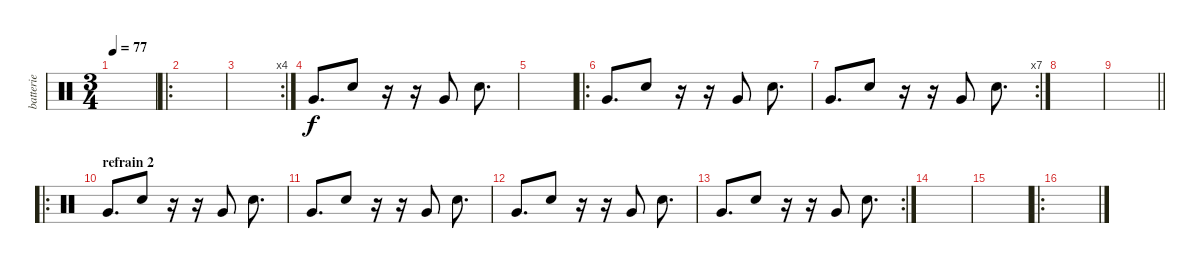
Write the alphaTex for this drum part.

\track ("batterie" "batterie") {instrument percussion}
\staff {score}
\articulation defaults
\ts (3 4)
\tempo 77
\clef neutral
\ks c
|
\ro
|
\rc 4
|
"Very Low Tom (hit)".8{d} "Snare (hit) 2".8 r.16 r.16 "Very Low Tom (hit)".8 "Snare (hit) 2".8{d} |
|
\ro "Very Low Tom (hit)".8{d} "Snare (hit) 2".8
r.16 r.16 "Very Low Tom (hit)".8 "Snare (hit) 2".8{d} |
\rc 7 "Very Low Tom (hit)".8{d} "Snare (hit) 2".8
r.16 r.16 "Very Low Tom (hit)".8 "Snare (hit) 2".8{d} |
|
\barLineRight lightlight
|
\ro
\section ("" "refrain 2")
"Very Low Tom (hit)".8{d} "Snare (hit) 2".8 r.16 r.16 "Very Low Tom (hit)".8 "Snare (hit) 2".8{d} |
"Very Low Tom (hit)".8{d} "Snare (hit) 2".8 r.16 r.16 "Very Low Tom (hit)".8 "Snare (hit) 2".8{d} |
"Very Low Tom (hit)".8{d} "Snare (hit) 2".8 r.16 r.16 "Very Low Tom (hit)".8 "Snare (hit) 2".8{d} |
\rc 2 "Very Low Tom (hit)".8{d} "Snare (hit) 2".8
r.16 r.16 "Very Low Tom (hit)".8 "Snare (hit) 2".8{d} |
|
|
\ro
